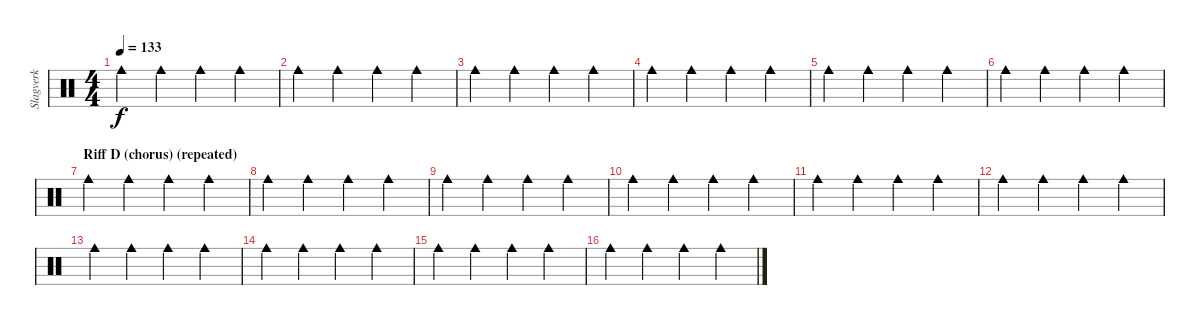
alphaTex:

\track ("Slagverk" "Slagverk") {instrument percussion}
\staff {score}
\articulation defaults
\ts (4 4)
\tempo 133
\clef neutral
\ks c "Cowbell medium (hit)".4{dy f} "Cowbell medium (hit)".4 "Cowbell medium (hit)".4 "Cowbell medium (hit)".4
|
"Cowbell medium (hit)".4 "Cowbell medium (hit)".4 "Cowbell medium (hit)".4 "Cowbell medium (hit)".4 |
"Cowbell medium (hit)".4 "Cowbell medium (hit)".4 "Cowbell medium (hit)".4 "Cowbell medium (hit)".4 |
"Cowbell medium (hit)".4 "Cowbell medium (hit)".4 "Cowbell medium (hit)".4 "Cowbell medium (hit)".4 |
"Cowbell medium (hit)".4 "Cowbell medium (hit)".4 "Cowbell medium (hit)".4 "Cowbell medium (hit)".4 |
"Cowbell medium (hit)".4 "Cowbell medium (hit)".4 "Cowbell medium (hit)".4 "Cowbell medium (hit)".4 |
\section ("" "Riff D (chorus) (repeated)")
"Cowbell medium (hit)".4 "Cowbell medium (hit)".4 "Cowbell medium (hit)".4 "Cowbell medium (hit)".4 |
"Cowbell medium (hit)".4 "Cowbell medium (hit)".4 "Cowbell medium (hit)".4 "Cowbell medium (hit)".4 |
"Cowbell medium (hit)".4 "Cowbell medium (hit)".4 "Cowbell medium (hit)".4 "Cowbell medium (hit)".4 |
"Cowbell medium (hit)".4 "Cowbell medium (hit)".4 "Cowbell medium (hit)".4 "Cowbell medium (hit)".4 |
"Cowbell medium (hit)".4 "Cowbell medium (hit)".4 "Cowbell medium (hit)".4 "Cowbell medium (hit)".4 |
"Cowbell medium (hit)".4 "Cowbell medium (hit)".4 "Cowbell medium (hit)".4 "Cowbell medium (hit)".4 |
"Cowbell medium (hit)".4 "Cowbell medium (hit)".4 "Cowbell medium (hit)".4 "Cowbell medium (hit)".4 |
"Cowbell medium (hit)".4 "Cowbell medium (hit)".4 "Cowbell medium (hit)".4 "Cowbell medium (hit)".4 |
"Cowbell medium (hit)".4 "Cowbell medium (hit)".4 "Cowbell medium (hit)".4 "Cowbell medium (hit)".4 |
"Cowbell medium (hit)".4 "Cowbell medium (hit)".4 "Cowbell medium (hit)".4 "Cowbell medium (hit)".4
